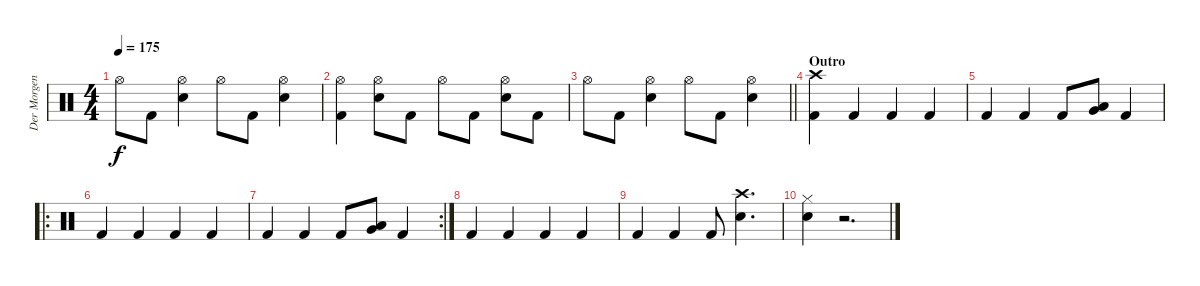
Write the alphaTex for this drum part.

\track ("Der Morgenstern" "Der Morgen") {instrument percussion}
\staff {score}
\articulation defaults
\ts (4 4)
\tempo 175
\clef neutral
\ks c "Hi-Hat (open)".8{dy f} "Kick (hit) 2".8
("Hi-Hat (open)" "Electric Snare (hit)").4 "Hi-Hat (open)".8 "Kick (hit) 2".8 ("Hi-Hat (open)" "Electric Snare (hit)").4 |
("Hi-Hat (open)" "Kick (hit) 2").4 ("Hi-Hat (open)" "Electric Snare (hit)").8 "Kick (hit) 2".8 "Hi-Hat (open)".8 "Kick (hit) 2".8 ("Hi-Hat (open)" "Electric Snare (hit)").8 "Kick (hit) 2".8 |
\barLineRight lightlight "Hi-Hat (open)".8 "Kick (hit) 2".8
("Hi-Hat (open)" "Electric Snare (hit)").4 "Hi-Hat (open)".8 "Kick (hit) 2".8 ("Hi-Hat (open)" "Electric Snare (hit)").4 |
\section ("" "Outro")
("Crash high (hit)" "Kick (hit) 2").4 "Kick (hit) 2".4 "Kick (hit) 2".4 "Kick (hit) 2".4 |
"Kick (hit) 2".4 "Kick (hit) 2".4 "Kick (hit) 2".8 ("Very Low Tom (hit)" "Low Floor Tom (hit)").8 "Kick (hit) 2".4 |
\ro "Kick (hit) 2".4 "Kick (hit) 2".4 "Kick (hit) 2".4 "Kick (hit) 2".4
|
\rc 2 "Kick (hit) 2".4 "Kick (hit) 2".4 "Kick (hit) 2".8
("Very Low Tom (hit)" "Low Floor Tom (hit)").8 "Kick (hit) 2".4 |
"Kick (hit) 2".4 "Kick (hit) 2".4 "Kick (hit) 2".4 "Kick (hit) 2".4 |
"Kick (hit) 2".4 "Kick (hit) 2".4 "Kick (hit) 2".8 ("Crash high (hit)" "Electric Snare (hit)").4{d} |
("Hi-Hat (closed)" "Electric Snare (hit)").4 r.2{d}
